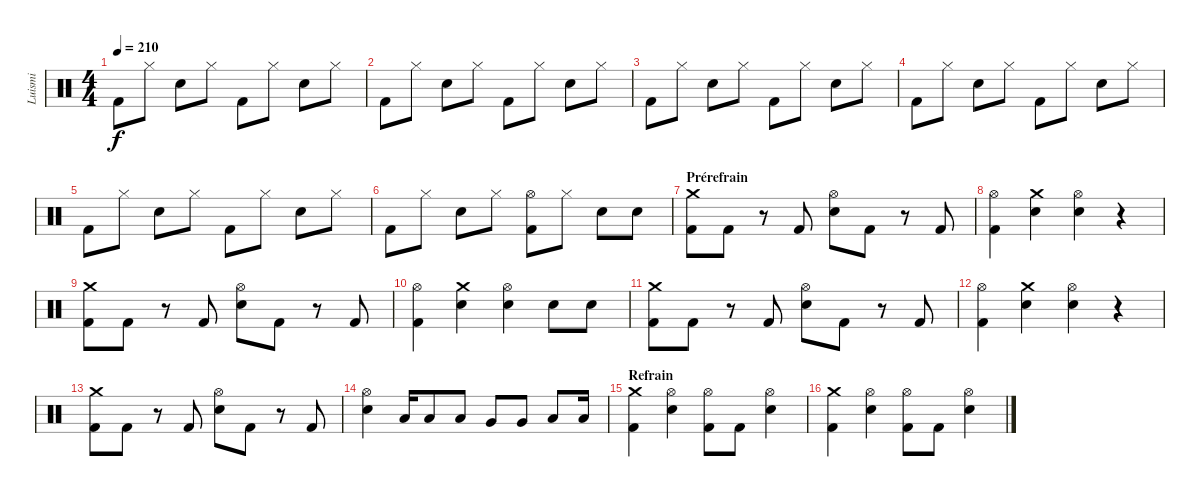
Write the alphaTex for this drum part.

\track ("Luismi" "Luismi") {instrument percussion}
\staff {score}
\articulation defaults
\ts (4 4)
\tempo 210
\clef neutral
\ks c "Kick (hit) 2".8{dy f} "Hi-Hat (closed)".8 "Snare (hit) 2".8 "Hi-Hat (closed)".8 "Kick (hit) 2".8 "Hi-Hat (closed)".8 "Snare (hit) 2".8 "Hi-Hat (closed)".8
|
"Kick (hit) 2".8 "Hi-Hat (closed)".8 "Snare (hit) 2".8 "Hi-Hat (closed)".8 "Kick (hit) 2".8 "Hi-Hat (closed)".8 "Snare (hit) 2".8 "Hi-Hat (closed)".8 |
"Kick (hit) 2".8 "Hi-Hat (closed)".8 "Snare (hit) 2".8 "Hi-Hat (closed)".8 "Kick (hit) 2".8 "Hi-Hat (closed)".8 "Snare (hit) 2".8 "Hi-Hat (closed)".8 |
"Kick (hit) 2".8 "Hi-Hat (closed)".8 "Snare (hit) 2".8 "Hi-Hat (closed)".8 "Kick (hit) 2".8 "Hi-Hat (closed)".8 "Snare (hit) 2".8 "Hi-Hat (closed)".8 |
"Kick (hit) 2".8 "Hi-Hat (closed)".8 "Snare (hit) 2".8 "Hi-Hat (closed)".8 "Kick (hit) 2".8 "Hi-Hat (closed)".8 "Snare (hit) 2".8 "Hi-Hat (closed)".8 |
"Kick (hit) 2".8 "Hi-Hat (closed)".8 "Snare (hit) 2".8 "Hi-Hat (closed)".8 ("Hi-Hat (open)" "Kick (hit) 2").8 "Hi-Hat (closed)".8 "Snare (hit) 2".8 "Snare (hit) 2".8 |
\section ("" "Prérefrain")
("Crash medium (hit)" "Kick (hit) 2").8 "Kick (hit) 2".8 r.8 "Kick (hit) 2".8 ("Hi-Hat (open)" "Snare (hit) 2").8 "Kick (hit) 2".8 r.8 "Kick (hit) 2".8 |
("Hi-Hat (open)" "Kick (hit) 2").4 ("Crash medium (hit)" "Snare (hit) 2").4 ("Hi-Hat (open)" "Snare (hit) 2").4 r.4 |
("Crash medium (hit)" "Kick (hit) 2").8 "Kick (hit) 2".8 r.8 "Kick (hit) 2".8 ("Hi-Hat (open)" "Snare (hit) 2").8 "Kick (hit) 2".8 r.8 "Kick (hit) 2".8 |
("Hi-Hat (open)" "Kick (hit) 2").4 ("Crash medium (hit)" "Snare (hit) 2").4 ("Hi-Hat (open)" "Snare (hit) 2").4 "Snare (hit) 2".8 "Snare (hit) 2".8 |
("Crash medium (hit)" "Kick (hit) 2").8 "Kick (hit) 2".8 r.8 "Kick (hit) 2".8 ("Hi-Hat (open)" "Snare (hit) 2").8 "Kick (hit) 2".8 r.8 "Kick (hit) 2".8 |
("Hi-Hat (open)" "Kick (hit) 2").4 ("Crash medium (hit)" "Snare (hit) 2").4 ("Hi-Hat (open)" "Snare (hit) 2").4 r.4 |
("Crash medium (hit)" "Kick (hit) 2").8 "Kick (hit) 2".8 r.8 "Kick (hit) 2".8 ("Hi-Hat (open)" "Snare (hit) 2").8 "Kick (hit) 2".8 r.8 "Kick (hit) 2".8 |
("Hi-Hat (open)" "Snare (hit) 2").4 "Low Tom (hit)".16 "Low Tom (hit)".8 "Low Tom (hit)".8 "Very Low Tom (hit)".8 "Very Low Tom (hit)".8 "Low Floor Tom (hit)".8 "Low Floor Tom (hit)".16 |
\section ("" "Refrain")
("Crash medium (hit)" "Kick (hit) 2").4 ("Hi-Hat (open)" "Snare (hit) 2").4 ("Hi-Hat (open)" "Kick (hit) 2").8 "Kick (hit) 2".8 ("Hi-Hat (open)" "Snare (hit) 2").4 |
("Crash medium (hit)" "Kick (hit) 2").4 ("Hi-Hat (open)" "Snare (hit) 2").4 ("Hi-Hat (open)" "Kick (hit) 2").8 "Kick (hit) 2".8 ("Hi-Hat (open)" "Snare (hit) 2").4
